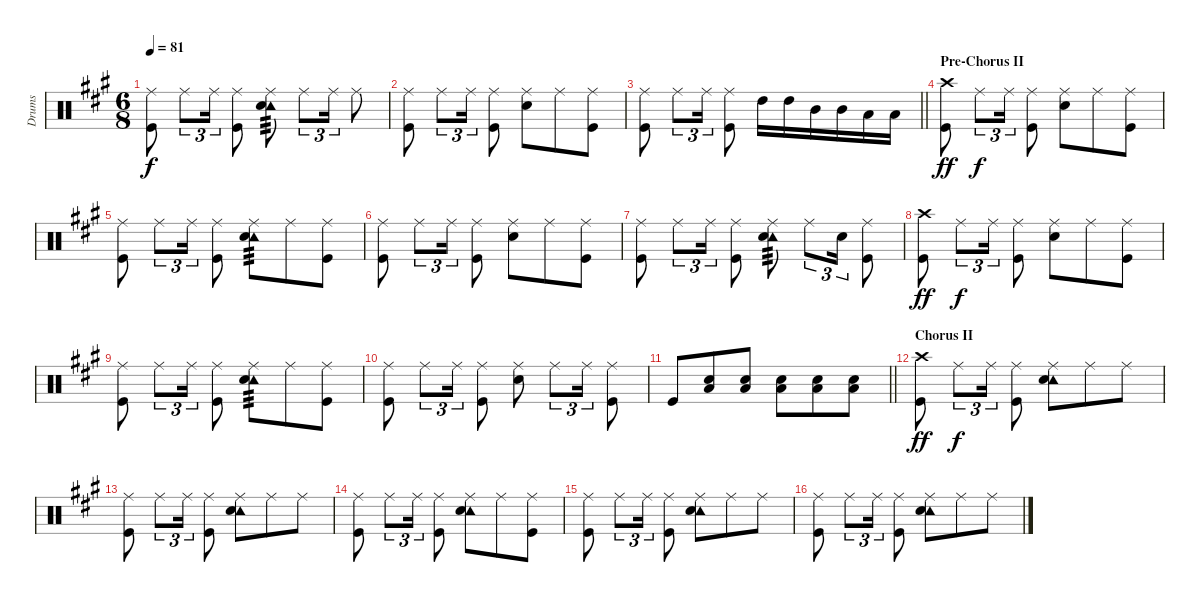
\track ("Drums" "Drums") {instrument percussion}
\staff {score}
\articulation defaults
\ts (6 8)
\tempo 81
\clef neutral
\ks a
("Ride (middle)" "Kick (hit)").8{dy f} "Ride (middle)".8{tu (3 2)} "Ride (middle)".16{tu (3 2)} ("Ride (middle)" "Kick (hit)").8 ("Ride (middle)" "Tambourine (hit)" "Snare (hit) 2").8{tp 3} "Ride (middle)".8{tu (3 2)} "Ride (middle)".16{tu (3 2)} "Ride (middle)".8 |
("Ride (middle)" "Kick (hit)").8 "Ride (middle)".8{tu (3 2)} "Ride (middle)".16{tu (3 2)} ("Ride (middle)" "Kick (hit)").8 ("Ride (middle)" "Snare (hit) 2").8 "Ride (middle)".8 ("Ride (middle)" "Kick (hit)").8 |
\barLineRight lightlight
("Ride (middle)" "Kick (hit)").8 "Ride (middle)".8{tu (3 2)} "Ride (middle)".16{tu (3 2)} ("Ride (middle)" "Kick (hit)").8 "High Tom (hit)".16 "High Tom (hit)".16 "Mid Tom (hit)".16 "Mid Tom (hit)".16 "Low Tom (hit)".16 "Low Tom (hit)".16 |
\section ("" "Pre-Chorus II")
("Crash high (hit)" "Kick (hit)").8{dy ff} "Ride (middle)".8{tu (3 2) dy f} "Ride (middle)".16{tu (3 2)} ("Ride (middle)" "Kick (hit)").8 ("Ride (middle)" "Snare (hit) 2").8 "Ride (middle)".8 ("Ride (middle)" "Kick (hit)").8 |
("Ride (middle)" "Kick (hit)").8 "Ride (middle)".8{tu (3 2)} "Ride (middle)".16{tu (3 2)} ("Ride (middle)" "Kick (hit)").8 ("Ride (middle)" "Tambourine (hit)" "Snare (hit) 2").8{tp 3} "Ride (middle)".8 ("Ride (middle)" "Kick (hit)").8 |
("Ride (middle)" "Kick (hit)").8 "Ride (middle)".8{tu (3 2)} "Ride (middle)".16{tu (3 2)} ("Ride (middle)" "Kick (hit)").8 ("Ride (middle)" "Snare (hit) 2").8 "Ride (middle)".8 ("Ride (middle)" "Kick (hit)").8 |
("Ride (middle)" "Kick (hit)").8 "Ride (middle)".8{tu (3 2)} "Ride (middle)".16{tu (3 2)} ("Ride (middle)" "Kick (hit)").8 ("Ride (middle)" "Tambourine (hit)" "Snare (hit) 2").8{tp 3} "Ride (middle)".8{tu (3 2)} "Snare (hit) 2".16{tu (3 2)} ("Ride (middle)" "Kick (hit)").8 |
("Crash high (hit)" "Kick (hit)").8{dy ff} "Ride (middle)".8{tu (3 2) dy f} "Ride (middle)".16{tu (3 2)} ("Ride (middle)" "Kick (hit)").8 ("Ride (middle)" "Snare (hit) 2").8 "Ride (middle)".8 ("Ride (middle)" "Kick (hit)").8 |
("Ride (middle)" "Kick (hit)").8 "Ride (middle)".8{tu (3 2)} "Ride (middle)".16{tu (3 2)} ("Ride (middle)" "Kick (hit)").8 ("Ride (middle)" "Tambourine (hit)" "Snare (hit) 2").8{tp 3} "Ride (middle)".8 ("Ride (middle)" "Kick (hit)").8 |
("Ride (middle)" "Kick (hit)").8 "Ride (middle)".8{tu (3 2)} "Ride (middle)".16{tu (3 2)} ("Ride (middle)" "Kick (hit)").8 ("Ride (middle)" "Snare (hit) 2").8 "Ride (middle)".8{tu (3 2)} "Ride (middle)".16{tu (3 2)} ("Ride (middle)" "Kick (hit)").8 |
\barLineRight lightlight "Kick (hit)".8
("Low Floor Tom (hit)" "Snare (hit) 2").8 ("Low Floor Tom (hit)" "Snare (hit) 2").8 ("Low Floor Tom (hit)" "Snare (hit) 2").8 ("Low Floor Tom (hit)" "Snare (hit) 2").8 ("Low Floor Tom (hit)" "Snare (hit) 2").8 |
\section ("" "Chorus II")
("Crash high (hit)" "Kick (hit)").8{dy ff} "Ride (middle)".8{tu (3 2) dy f} "Ride (middle)".16{tu (3 2)} ("Ride (middle)" "Kick (hit)").8 ("Ride (middle)" "Tambourine (hit)" "Snare (hit) 2").8 "Ride (middle)".8 "Ride (middle)".8 |
("Ride (middle)" "Kick (hit)").8 "Ride (middle)".8{tu (3 2)} "Ride (middle)".16{tu (3 2)} ("Ride (middle)" "Kick (hit)").8 ("Ride (middle)" "Tambourine (hit)" "Snare (hit) 2").8 "Ride (middle)".8 "Ride (middle)".8 |
("Ride (middle)" "Kick (hit)").8 "Ride (middle)".8{tu (3 2)} "Ride (middle)".16{tu (3 2)} ("Ride (middle)" "Kick (hit)").8 ("Ride (middle)" "Tambourine (hit)" "Snare (hit) 2").8 "Ride (middle)".8 ("Ride (middle)" "Kick (hit)").8 |
("Ride (middle)" "Kick (hit)").8 "Ride (middle)".8{tu (3 2)} "Ride (middle)".16{tu (3 2)} ("Ride (middle)" "Kick (hit)").8 ("Ride (middle)" "Tambourine (hit)" "Snare (hit) 2").8 "Ride (middle)".8 "Ride (middle)".8 |
("Ride (middle)" "Kick (hit)").8 "Ride (middle)".8{tu (3 2)} "Ride (middle)".16{tu (3 2)} ("Ride (middle)" "Kick (hit)").8 ("Ride (middle)" "Tambourine (hit)" "Snare (hit) 2").8 "Ride (middle)".8 "Ride (middle)".8
